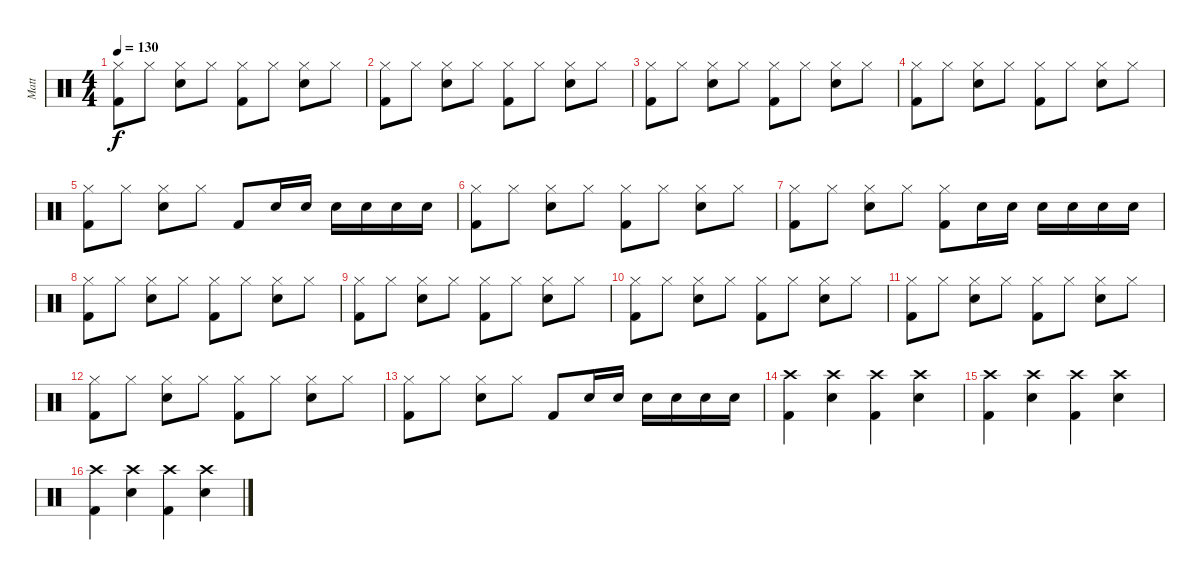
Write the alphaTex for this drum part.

\track ("Matt" "Matt") {instrument percussion}
\staff {score}
\articulation defaults
\ts (4 4)
\tempo 130
\clef neutral
\ks c
("Hi-Hat (closed)" "Kick (hit) 2").8{dy f} "Hi-Hat (closed)".8 ("Hi-Hat (closed)" "Snare (hit) 2").8 "Hi-Hat (closed)".8 ("Hi-Hat (closed)" "Kick (hit) 2").8 "Hi-Hat (closed)".8 ("Hi-Hat (closed)" "Snare (hit) 2").8 "Hi-Hat (closed)".8 |
("Hi-Hat (closed)" "Kick (hit) 2").8 "Hi-Hat (closed)".8 ("Hi-Hat (closed)" "Snare (hit) 2").8 "Hi-Hat (closed)".8 ("Hi-Hat (closed)" "Kick (hit) 2").8 "Hi-Hat (closed)".8 ("Hi-Hat (closed)" "Snare (hit) 2").8 "Hi-Hat (closed)".8 |
("Hi-Hat (closed)" "Kick (hit) 2").8 "Hi-Hat (closed)".8 ("Hi-Hat (closed)" "Snare (hit) 2").8 "Hi-Hat (closed)".8 ("Hi-Hat (closed)" "Kick (hit) 2").8 "Hi-Hat (closed)".8 ("Hi-Hat (closed)" "Snare (hit) 2").8 "Hi-Hat (closed)".8 |
("Hi-Hat (closed)" "Kick (hit) 2").8 "Hi-Hat (closed)".8 ("Hi-Hat (closed)" "Snare (hit) 2").8 "Hi-Hat (closed)".8 ("Hi-Hat (closed)" "Kick (hit) 2").8 "Hi-Hat (closed)".8 ("Hi-Hat (closed)" "Snare (hit) 2").8 "Hi-Hat (closed)".8 |
("Hi-Hat (closed)" "Kick (hit) 2").8 "Hi-Hat (closed)".8 ("Hi-Hat (closed)" "Snare (hit) 2").8 "Hi-Hat (closed)".8 "Kick (hit) 2".8 "Snare (hit) 2".16 "Snare (hit) 2".16 "Snare (hit) 2".16 "Snare (hit) 2".16 "Snare (hit) 2".16 "Snare (hit) 2".16 |
("Hi-Hat (closed)" "Kick (hit) 2").8 "Hi-Hat (closed)".8 ("Hi-Hat (closed)" "Snare (hit) 2").8 "Hi-Hat (closed)".8 ("Hi-Hat (closed)" "Kick (hit) 2").8 "Hi-Hat (closed)".8 ("Hi-Hat (closed)" "Snare (hit) 2").8 "Hi-Hat (closed)".8 |
("Hi-Hat (closed)" "Kick (hit) 2").8 "Hi-Hat (closed)".8 ("Hi-Hat (closed)" "Snare (hit) 2").8 "Hi-Hat (closed)".8 ("Hi-Hat (closed)" "Kick (hit) 2").8 "Snare (hit) 2".16 "Snare (hit) 2".16 "Snare (hit) 2".16 "Snare (hit) 2".16 "Snare (hit) 2".16 "Snare (hit) 2".16 |
("Hi-Hat (closed)" "Kick (hit) 2").8 "Hi-Hat (closed)".8 ("Hi-Hat (closed)" "Snare (hit) 2").8 "Hi-Hat (closed)".8 ("Hi-Hat (closed)" "Kick (hit) 2").8 "Hi-Hat (closed)".8 ("Hi-Hat (closed)" "Snare (hit) 2").8 "Hi-Hat (closed)".8 |
("Hi-Hat (closed)" "Kick (hit) 2").8 "Hi-Hat (closed)".8 ("Hi-Hat (closed)" "Snare (hit) 2").8 "Hi-Hat (closed)".8 ("Hi-Hat (closed)" "Kick (hit) 2").8 "Hi-Hat (closed)".8 ("Hi-Hat (closed)" "Snare (hit) 2").8 "Hi-Hat (closed)".8 |
("Hi-Hat (closed)" "Kick (hit) 2").8 "Hi-Hat (closed)".8 ("Hi-Hat (closed)" "Snare (hit) 2").8 "Hi-Hat (closed)".8 ("Hi-Hat (closed)" "Kick (hit) 2").8 "Hi-Hat (closed)".8 ("Hi-Hat (closed)" "Snare (hit) 2").8 "Hi-Hat (closed)".8 |
("Hi-Hat (closed)" "Kick (hit) 2").8 "Hi-Hat (closed)".8 ("Hi-Hat (closed)" "Snare (hit) 2").8 "Hi-Hat (closed)".8 ("Hi-Hat (closed)" "Kick (hit) 2").8 "Hi-Hat (closed)".8 ("Hi-Hat (closed)" "Snare (hit) 2").8 "Hi-Hat (closed)".8 |
("Hi-Hat (closed)" "Kick (hit) 2").8 "Hi-Hat (closed)".8 ("Hi-Hat (closed)" "Snare (hit) 2").8 "Hi-Hat (closed)".8 ("Hi-Hat (closed)" "Kick (hit) 2").8 "Hi-Hat (closed)".8 ("Hi-Hat (closed)" "Snare (hit) 2").8 "Hi-Hat (closed)".8 |
("Hi-Hat (closed)" "Kick (hit) 2").8 "Hi-Hat (closed)".8 ("Hi-Hat (closed)" "Snare (hit) 2").8 "Hi-Hat (closed)".8 "Kick (hit) 2".8 "Snare (hit) 2".16 "Snare (hit) 2".16 "Snare (hit) 2".16 "Snare (hit) 2".16 "Snare (hit) 2".16 "Snare (hit) 2".16 |
("Crash high (hit)" "Kick (hit) 2").4 ("Crash high (hit)" "Snare (hit) 2").4 ("Crash high (hit)" "Kick (hit) 2").4 ("Crash high (hit)" "Snare (hit) 2").4 |
("Crash high (hit)" "Kick (hit) 2").4 ("Crash high (hit)" "Snare (hit) 2").4 ("Crash high (hit)" "Kick (hit) 2").4 ("Crash high (hit)" "Snare (hit) 2").4 |
("Crash high (hit)" "Kick (hit) 2").4 ("Crash high (hit)" "Snare (hit) 2").4 ("Crash high (hit)" "Kick (hit) 2").4 ("Crash high (hit)" "Snare (hit) 2").4
